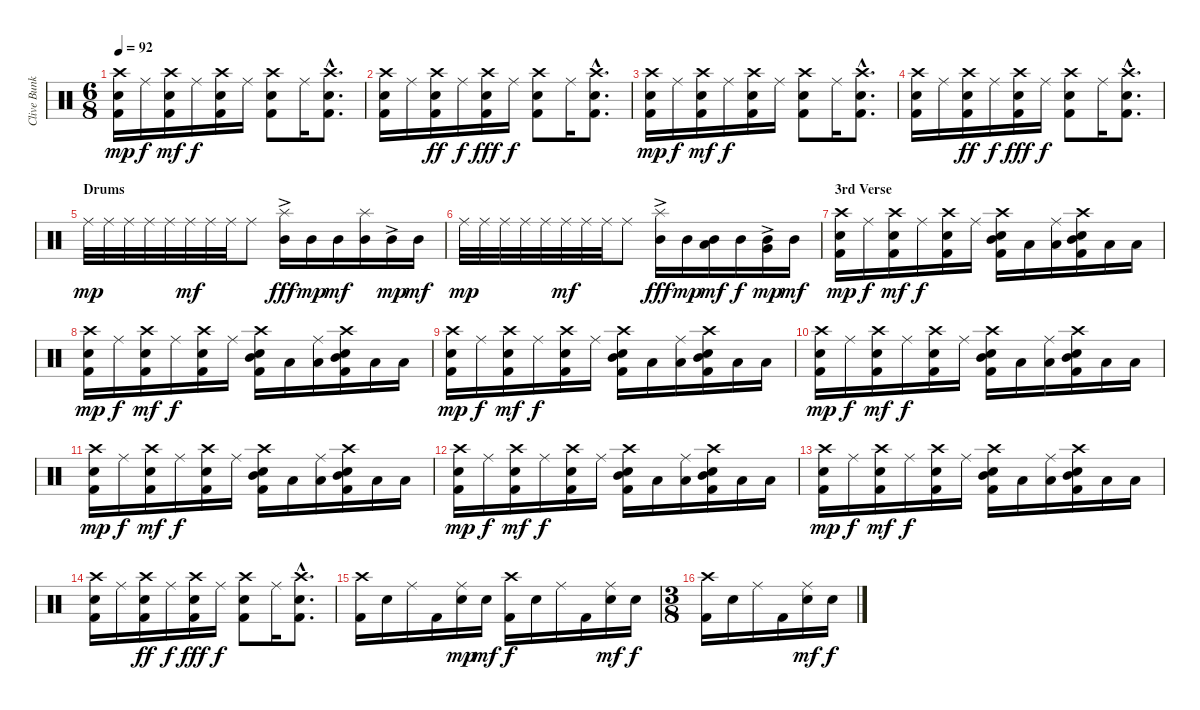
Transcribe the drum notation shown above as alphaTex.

\track ("Clive Bunker (Drums)" "Clive Bunk") {instrument percussion}
\staff {score}
\articulation defaults
\ts (6 8)
\tempo 92
\clef neutral
\ks c
("Crash high (hit)" "Electric Snare (hit)" "Kick (hit) 2").16{dy mp} "Ride (middle)".16{dy f} ("Crash high (hit)" "Electric Snare (hit)" "Kick (hit) 2").16{dy mf} "Ride (middle)".16{dy f} ("Crash high (hit)" "Electric Snare (hit)" "Kick (hit) 2").16 "Ride (middle)".16 ("Crash high (hit)" "Electric Snare (hit)" "Kick (hit) 2").8 "Ride (middle)".16 ("Crash high (hit)"{hac} "Electric Snare (hit)"{hac} "Kick (hit) 2"{hac}).8{d} |
("Crash high (hit)" "Electric Snare (hit)" "Kick (hit) 2").16 "Ride (middle)".16 ("Crash high (hit)" "Electric Snare (hit)" "Kick (hit) 2").16{dy ff} "Ride (middle)".16{dy f} ("Crash high (hit)" "Electric Snare (hit)" "Kick (hit) 2").16{dy fff} "Ride (middle)".16{dy f} ("Crash high (hit)" "Electric Snare (hit)" "Kick (hit) 2").8 "Ride (middle)".16 ("Crash high (hit)"{hac} "Electric Snare (hit)"{hac} "Kick (hit) 2"{hac}).8{d} |
("Crash high (hit)" "Electric Snare (hit)" "Kick (hit) 2").16{dy mp} "Ride (middle)".16{dy f} ("Crash high (hit)" "Electric Snare (hit)" "Kick (hit) 2").16{dy mf} "Ride (middle)".16{dy f} ("Crash high (hit)" "Electric Snare (hit)" "Kick (hit) 2").16 "Ride (middle)".16 ("Crash high (hit)" "Electric Snare (hit)" "Kick (hit) 2").8 "Ride (middle)".16 ("Crash high (hit)"{hac} "Electric Snare (hit)"{hac} "Kick (hit) 2"{hac}).8{d} |
("Crash high (hit)" "Electric Snare (hit)" "Kick (hit) 2").16 "Ride (middle)".16 ("Crash high (hit)" "Electric Snare (hit)" "Kick (hit) 2").16{dy ff} "Ride (middle)".16{dy f} ("Crash high (hit)" "Electric Snare (hit)" "Kick (hit) 2").16{dy fff} "Ride (middle)".16{dy f} ("Crash high (hit)" "Electric Snare (hit)" "Kick (hit) 2").8 "Ride (middle)".16 ("Crash high (hit)"{hac} "Electric Snare (hit)"{hac} "Kick (hit) 2"{hac}).8{d} |
\section ("" "Drums")
"Ride (middle)".32{dy mp} "Ride (middle)".32 "Ride (middle)".32 "Ride (middle)".32 "Ride (middle)".32 "Ride (middle)".32{dy mf} "Ride (middle)".32 "Ride (middle)".32 "Ride (middle)".8 ("Splash (hit)" "Mid Tom (hit)"{ac}).16{dy fff} "Mid Tom (hit)".16{dy mp} "Mid Tom (hit)".16{dy mf} ("Splash (hit)" "Mid Tom (hit)").16 "Mid Tom (hit)"{ac}.16{dy mp} "Mid Tom (hit)".16{dy mf} |
"Ride (middle)".32{dy mp} "Ride (middle)".32 "Ride (middle)".32 "Ride (middle)".32 "Ride (middle)".32 "Ride (middle)".32{dy mf} "Ride (middle)".32 "Ride (middle)".32 "Ride (middle)".8 ("Splash (hit)" "Mid Tom (hit)"{ac}).16{dy fff} "Mid Tom (hit)".16{dy mp} ("Mid Tom (hit)" "Low Tom (hit)").16{dy mf} "Mid Tom (hit)".16{dy f} ("Mid Tom (hit)"{ac} "Very Low Tom (hit)").16{dy mp} "Mid Tom (hit)".16{dy mf} |
\section ("" "3rd Verse")
("Crash high (hit)" "Electric Snare (hit)" "Kick (hit) 2").16{dy mp} "Ride (middle)".16{dy f} ("Crash high (hit)" "Electric Snare (hit)" "Kick (hit) 2").16{dy mf} "Ride (middle)".16{dy f} ("Crash high (hit)" "Electric Snare (hit)" "Kick (hit) 2").16 "Ride (middle)".16 ("Crash high (hit)" "Electric Snare (hit)" "Mid Tom (hit)" "Kick (hit) 2").16 "Low Tom (hit)".16 ("Ride (middle)" "Low Tom (hit)").16 ("Crash high (hit)" "Electric Snare (hit)" "Mid Tom (hit)" "Kick (hit) 2").16 "Low Tom (hit)".16 "Low Tom (hit)".16 |
("Crash high (hit)" "Electric Snare (hit)" "Kick (hit) 2").16{dy mp} "Ride (middle)".16{dy f} ("Crash high (hit)" "Electric Snare (hit)" "Kick (hit) 2").16{dy mf} "Ride (middle)".16{dy f} ("Crash high (hit)" "Electric Snare (hit)" "Kick (hit) 2").16 "Ride (middle)".16 ("Crash high (hit)" "Electric Snare (hit)" "Mid Tom (hit)" "Kick (hit) 2").16 "Low Tom (hit)".16 ("Ride (middle)" "Low Tom (hit)").16 ("Crash high (hit)" "Electric Snare (hit)" "Mid Tom (hit)" "Kick (hit) 2").16 "Low Tom (hit)".16 "Low Tom (hit)".16 |
("Crash high (hit)" "Electric Snare (hit)" "Kick (hit) 2").16{dy mp} "Ride (middle)".16{dy f} ("Crash high (hit)" "Electric Snare (hit)" "Kick (hit) 2").16{dy mf} "Ride (middle)".16{dy f} ("Crash high (hit)" "Electric Snare (hit)" "Kick (hit) 2").16 "Ride (middle)".16 ("Crash high (hit)" "Electric Snare (hit)" "Mid Tom (hit)" "Kick (hit) 2").16 "Low Tom (hit)".16 ("Ride (middle)" "Low Tom (hit)").16 ("Crash high (hit)" "Electric Snare (hit)" "Mid Tom (hit)" "Kick (hit) 2").16 "Low Tom (hit)".16 "Low Tom (hit)".16 |
("Crash high (hit)" "Electric Snare (hit)" "Kick (hit) 2").16{dy mp} "Ride (middle)".16{dy f} ("Crash high (hit)" "Electric Snare (hit)" "Kick (hit) 2").16{dy mf} "Ride (middle)".16{dy f} ("Crash high (hit)" "Electric Snare (hit)" "Kick (hit) 2").16 "Ride (middle)".16 ("Crash high (hit)" "Electric Snare (hit)" "Mid Tom (hit)" "Kick (hit) 2").16 "Low Tom (hit)".16 ("Ride (middle)" "Low Tom (hit)").16 ("Crash high (hit)" "Electric Snare (hit)" "Mid Tom (hit)" "Kick (hit) 2").16 "Low Tom (hit)".16 "Low Tom (hit)".16 |
("Crash high (hit)" "Electric Snare (hit)" "Kick (hit) 2").16{dy mp} "Ride (middle)".16{dy f} ("Crash high (hit)" "Electric Snare (hit)" "Kick (hit) 2").16{dy mf} "Ride (middle)".16{dy f} ("Crash high (hit)" "Electric Snare (hit)" "Kick (hit) 2").16 "Ride (middle)".16 ("Crash high (hit)" "Electric Snare (hit)" "Mid Tom (hit)" "Kick (hit) 2").16 "Low Tom (hit)".16 ("Ride (middle)" "Low Tom (hit)").16 ("Crash high (hit)" "Electric Snare (hit)" "Mid Tom (hit)" "Kick (hit) 2").16 "Low Tom (hit)".16 "Low Tom (hit)".16 |
("Crash high (hit)" "Electric Snare (hit)" "Kick (hit) 2").16{dy mp} "Ride (middle)".16{dy f} ("Crash high (hit)" "Electric Snare (hit)" "Kick (hit) 2").16{dy mf} "Ride (middle)".16{dy f} ("Crash high (hit)" "Electric Snare (hit)" "Kick (hit) 2").16 "Ride (middle)".16 ("Crash high (hit)" "Electric Snare (hit)" "Mid Tom (hit)" "Kick (hit) 2").16 "Low Tom (hit)".16 ("Ride (middle)" "Low Tom (hit)").16 ("Crash high (hit)" "Electric Snare (hit)" "Mid Tom (hit)" "Kick (hit) 2").16 "Low Tom (hit)".16 "Low Tom (hit)".16 |
("Crash high (hit)" "Electric Snare (hit)" "Kick (hit) 2").16{dy mp} "Ride (middle)".16{dy f} ("Crash high (hit)" "Electric Snare (hit)" "Kick (hit) 2").16{dy mf} "Ride (middle)".16{dy f} ("Crash high (hit)" "Electric Snare (hit)" "Kick (hit) 2").16 "Ride (middle)".16 ("Crash high (hit)" "Electric Snare (hit)" "Mid Tom (hit)" "Kick (hit) 2").16 "Low Tom (hit)".16 ("Ride (middle)" "Low Tom (hit)").16 ("Crash high (hit)" "Electric Snare (hit)" "Mid Tom (hit)" "Kick (hit) 2").16 "Low Tom (hit)".16 "Low Tom (hit)".16 |
("Crash high (hit)" "Electric Snare (hit)" "Kick (hit) 2").16 "Ride (middle)".16 ("Crash high (hit)" "Electric Snare (hit)" "Kick (hit) 2").16{dy ff} "Ride (middle)".16{dy f} ("Crash high (hit)" "Electric Snare (hit)" "Kick (hit) 2").16{dy fff} "Ride (middle)".16{dy f} ("Crash high (hit)" "Electric Snare (hit)" "Kick (hit) 2").8 "Ride (middle)".16 ("Crash high (hit)"{hac} "Electric Snare (hit)"{hac} "Kick (hit) 2"{hac}).8{d} |
("Crash high (hit)" "Kick (hit) 2").16 "Electric Snare (hit)".16 "Ride (middle)".16 "Kick (hit) 2".16 ("Ride (middle)" "Electric Snare (hit)").16{dy mp} "Electric Snare (hit)".16{dy mf} ("Crash high (hit)" "Kick (hit) 2").16{dy f} "Electric Snare (hit)".16 "Ride (middle)".16 "Kick (hit) 2".16 ("Ride (middle)" "Electric Snare (hit)").16{dy mf} "Electric Snare (hit)".16{dy f} |
\ts (3 8)
("Crash high (hit)" "Kick (hit) 2").16 "Electric Snare (hit)".16 "Ride (middle)".16 "Kick (hit) 2".16 ("Ride (middle)" "Electric Snare (hit)").16{dy mf} "Electric Snare (hit)".16{dy f}
